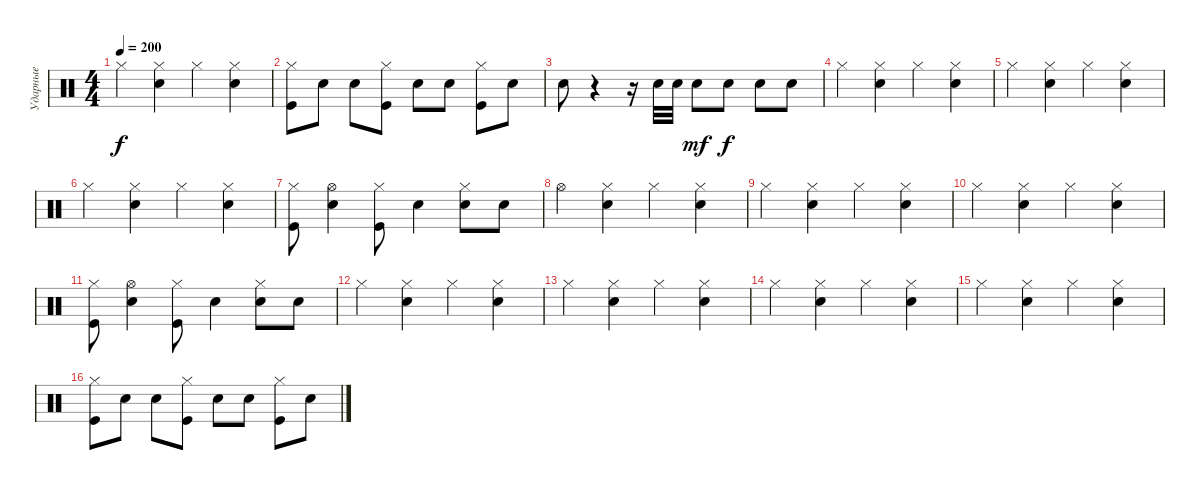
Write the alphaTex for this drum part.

\track ("Ударные" "Ударные") {instrument percussion}
\staff {score}
\articulation defaults
\ts (4 4)
\tempo 200
\clef neutral
\ks c "Hi-Hat (closed)".4{dy f}
("Snare (hit) 2" "Hi-Hat (closed)").4 "Hi-Hat (closed)".4 ("Snare (hit) 2" "Hi-Hat (closed)").4 |
("Hi-Hat (closed)" "Kick (hit)").8 "Electric Snare (hit)".8 "Electric Snare (hit)".8 ("Hi-Hat (closed)" "Kick (hit)").8 "Electric Snare (hit)".8 "Electric Snare (hit)".8 ("Hi-Hat (closed)" "Kick (hit)").8 "Electric Snare (hit)".8 |
"Electric Snare (hit)".8 r.4 r.16 "Electric Snare (hit)".32 "Electric Snare (hit)".32 "Electric Snare (hit)".8{dy mf} "Electric Snare (hit)".8{dy f} "Electric Snare (hit)".8 "Electric Snare (hit)".8 |
"Hi-Hat (closed)".4 ("Snare (hit) 2" "Hi-Hat (closed)").4 "Hi-Hat (closed)".4 ("Snare (hit) 2" "Hi-Hat (closed)").4 |
"Hi-Hat (closed)".4 ("Snare (hit) 2" "Hi-Hat (closed)").4 "Hi-Hat (closed)".4 ("Snare (hit) 2" "Hi-Hat (closed)").4 |
"Hi-Hat (closed)".4 ("Snare (hit) 2" "Hi-Hat (closed)").4 "Hi-Hat (closed)".4 ("Snare (hit) 2" "Hi-Hat (closed)").4 |
("Kick (hit)" "Hi-Hat (closed)").8 ("Hi-Hat (open)" "Electric Snare (hit)").4 ("Kick (hit)" "Hi-Hat (closed)").8 "Electric Snare (hit)".4 ("Electric Snare (hit)" "Hi-Hat (closed)").8 "Electric Snare (hit)".8 |
"Hi-Hat (open)".4 ("Snare (hit) 2" "Hi-Hat (closed)").4 "Hi-Hat (closed)".4 ("Snare (hit) 2" "Hi-Hat (closed)").4 |
"Hi-Hat (closed)".4 ("Snare (hit) 2" "Hi-Hat (closed)").4 "Hi-Hat (closed)".4 ("Snare (hit) 2" "Hi-Hat (closed)").4 |
"Hi-Hat (closed)".4 ("Snare (hit) 2" "Hi-Hat (closed)").4 "Hi-Hat (closed)".4 ("Snare (hit) 2" "Hi-Hat (closed)").4 |
("Kick (hit)" "Hi-Hat (closed)").8 ("Hi-Hat (open)" "Electric Snare (hit)").4 ("Kick (hit)" "Hi-Hat (closed)").8 "Electric Snare (hit)".4 ("Electric Snare (hit)" "Hi-Hat (closed)").8 "Electric Snare (hit)".8 |
"Hi-Hat (closed)".4 ("Snare (hit) 2" "Hi-Hat (closed)").4 "Hi-Hat (closed)".4 ("Snare (hit) 2" "Hi-Hat (closed)").4 |
"Hi-Hat (closed)".4 ("Snare (hit) 2" "Hi-Hat (closed)").4 "Hi-Hat (closed)".4 ("Snare (hit) 2" "Hi-Hat (closed)").4 |
"Hi-Hat (closed)".4 ("Snare (hit) 2" "Hi-Hat (closed)").4 "Hi-Hat (closed)".4 ("Snare (hit) 2" "Hi-Hat (closed)").4 |
"Hi-Hat (closed)".4 ("Snare (hit) 2" "Hi-Hat (closed)").4 "Hi-Hat (closed)".4 ("Snare (hit) 2" "Hi-Hat (closed)").4 |
("Hi-Hat (closed)" "Kick (hit)").8 "Electric Snare (hit)".8 "Electric Snare (hit)".8 ("Hi-Hat (closed)" "Kick (hit)").8 "Electric Snare (hit)".8 "Electric Snare (hit)".8 ("Hi-Hat (closed)" "Kick (hit)").8 "Electric Snare (hit)".8
